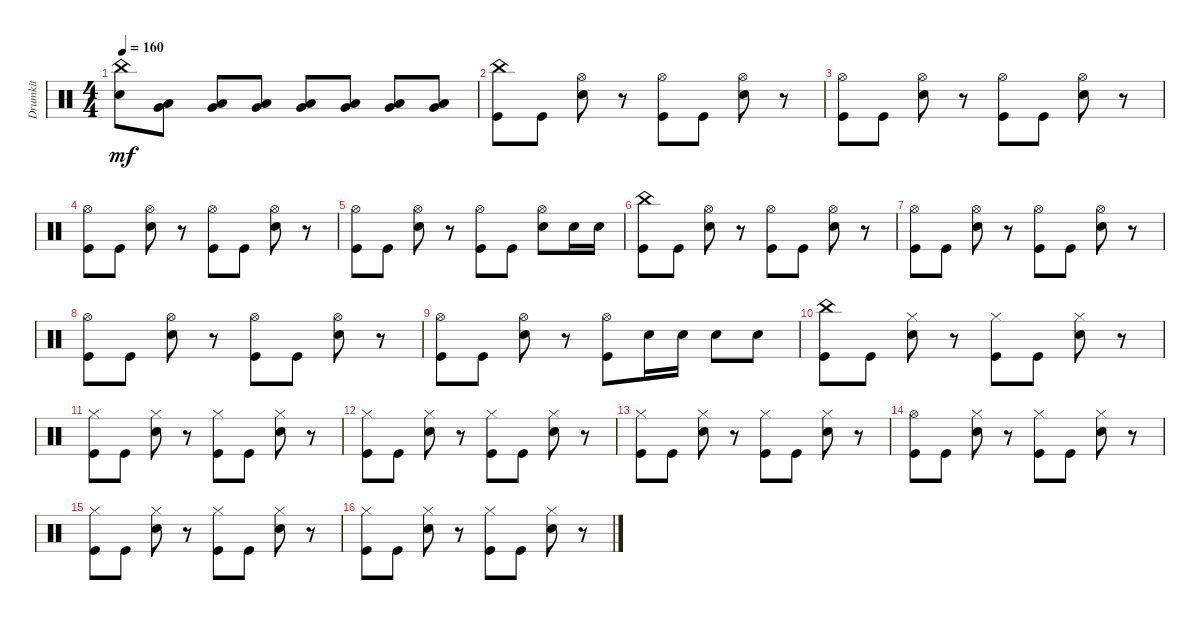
\track ("Drumkit" "Drumkit") {instrument percussion}
\staff {score}
\articulation defaults
\ts (4 4)
\tempo 160
\clef neutral
\ks c
("Snare (hit) 2" "China (hit)").8{dy mf} ("Low Tom (hit)" "Very Low Tom (hit)").8 ("Low Tom (hit)" "Very Low Tom (hit)").8 ("Low Tom (hit)" "Very Low Tom (hit)").8 ("Low Tom (hit)" "Very Low Tom (hit)").8 ("Low Tom (hit)" "Very Low Tom (hit)").8 ("Low Tom (hit)" "Very Low Tom (hit)").8 ("Low Tom (hit)" "Very Low Tom (hit)").8 |
("Kick (hit)" "China (hit)").8 "Kick (hit)".8 ("Snare (hit) 2" "Hi-Hat (open)").8 r.8 ("Kick (hit)" "Hi-Hat (open)").8 "Kick (hit)".8 ("Snare (hit) 2" "Hi-Hat (open)").8 r.8 |
("Kick (hit)" "Hi-Hat (open)").8 "Kick (hit)".8 ("Snare (hit) 2" "Hi-Hat (open)").8 r.8 ("Kick (hit)" "Hi-Hat (open)").8 "Kick (hit)".8 ("Snare (hit) 2" "Hi-Hat (open)").8 r.8 |
("Kick (hit)" "Hi-Hat (open)").8 "Kick (hit)".8 ("Snare (hit) 2" "Hi-Hat (open)").8 r.8 ("Kick (hit)" "Hi-Hat (open)").8 "Kick (hit)".8 ("Snare (hit) 2" "Hi-Hat (open)").8 r.8 |
("Kick (hit)" "Hi-Hat (open)").8 "Kick (hit)".8 ("Snare (hit) 2" "Hi-Hat (open)").8 r.8 ("Kick (hit)" "Hi-Hat (open)").8 "Kick (hit)".8 ("Snare (hit) 2" "Hi-Hat (open)").8 "Snare (hit) 2".16 "Snare (hit) 2".16 |
("Kick (hit)" "China (hit)").8 "Kick (hit)".8 ("Snare (hit) 2" "Hi-Hat (open)").8 r.8 ("Kick (hit)" "Hi-Hat (open)").8 "Kick (hit)".8 ("Snare (hit) 2" "Hi-Hat (open)").8 r.8 |
("Kick (hit)" "Hi-Hat (open)").8 "Kick (hit)".8 ("Snare (hit) 2" "Hi-Hat (open)").8 r.8 ("Kick (hit)" "Hi-Hat (open)").8 "Kick (hit)".8 ("Snare (hit) 2" "Hi-Hat (open)").8 r.8 |
("Kick (hit)" "Hi-Hat (open)").8 "Kick (hit)".8 ("Snare (hit) 2" "Hi-Hat (open)").8 r.8 ("Kick (hit)" "Hi-Hat (open)").8 "Kick (hit)".8 ("Snare (hit) 2" "Hi-Hat (open)").8 r.8 |
("Kick (hit)" "Hi-Hat (open)").8 "Kick (hit)".8 ("Snare (hit) 2" "Hi-Hat (open)").8 r.8 ("Kick (hit)" "Hi-Hat (open)").8 "Snare (hit) 2".16 "Snare (hit) 2".16 "Snare (hit) 2".8 "Snare (hit) 2".8 |
("Kick (hit)" "China (hit)").8 "Kick (hit)".8 ("Snare (hit) 2" "Hi-Hat (closed)").8 r.8 ("Kick (hit)" "Hi-Hat (closed)").8 "Kick (hit)".8 ("Snare (hit) 2" "Hi-Hat (closed)").8 r.8 |
("Kick (hit)" "Hi-Hat (closed)").8 "Kick (hit)".8 ("Snare (hit) 2" "Hi-Hat (closed)").8 r.8 ("Kick (hit)" "Hi-Hat (closed)").8 "Kick (hit)".8 ("Snare (hit) 2" "Hi-Hat (closed)").8 r.8 |
("Kick (hit)" "Hi-Hat (closed)").8 "Kick (hit)".8 ("Snare (hit) 2" "Hi-Hat (closed)").8 r.8 ("Kick (hit)" "Hi-Hat (closed)").8 "Kick (hit)".8 ("Snare (hit) 2" "Hi-Hat (closed)").8 r.8 |
("Kick (hit)" "Hi-Hat (closed)").8 "Kick (hit)".8 ("Snare (hit) 2" "Hi-Hat (closed)").8 r.8 ("Kick (hit)" "Hi-Hat (closed)").8 "Kick (hit)".8 ("Snare (hit) 2" "Hi-Hat (closed)").8 r.8 |
("Kick (hit)" "Hi-Hat (open)").8 "Kick (hit)".8 ("Snare (hit) 2" "Hi-Hat (closed)").8 r.8 ("Kick (hit)" "Hi-Hat (closed)").8 "Kick (hit)".8 ("Snare (hit) 2" "Hi-Hat (closed)").8 r.8 |
("Kick (hit)" "Hi-Hat (closed)").8 "Kick (hit)".8 ("Snare (hit) 2" "Hi-Hat (closed)").8 r.8 ("Kick (hit)" "Hi-Hat (closed)").8 "Kick (hit)".8 ("Snare (hit) 2" "Hi-Hat (closed)").8 r.8 |
("Kick (hit)" "Hi-Hat (closed)").8 "Kick (hit)".8 ("Snare (hit) 2" "Hi-Hat (closed)").8 r.8 ("Kick (hit)" "Hi-Hat (closed)").8 "Kick (hit)".8 ("Snare (hit) 2" "Hi-Hat (closed)").8 r.8
